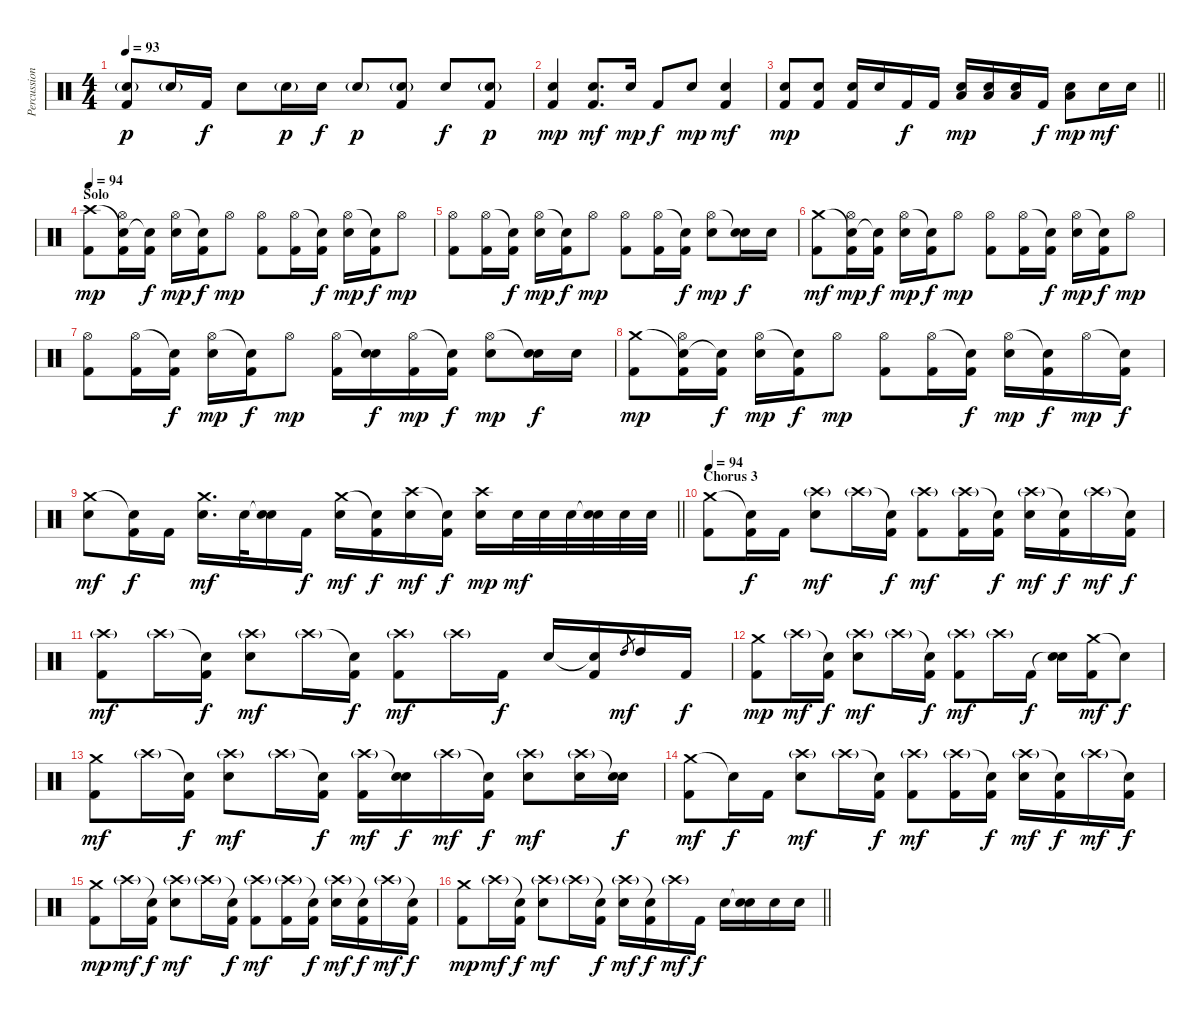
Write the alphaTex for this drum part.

\track ("Percussions" "Percussion") {instrument percussion}
\staff {score}
\articulation defaults
\ts (4 4)
\tempo 93
\clef neutral
\ks c
("Snare (hit) 2"{g} "Kick (hit) 2").8{dy p} "Snare (hit) 2"{g}.16 "Kick (hit) 2".16{dy f} "Electric Snare (hit)".8 "Snare (hit) 2"{g}.16{dy p} "Electric Snare (hit)".16{dy f} "Snare (hit) 2"{g}.8{dy p} ("Snare (hit) 2"{g} "Kick (hit) 2").8 "Electric Snare (hit)".8{dy f} ("Snare (hit) 2"{g} "Kick (hit) 2").8{dy p} |
("Electric Snare (hit)" "Kick (hit) 2").4{dy mp} ("Electric Snare (hit)" "Kick (hit) 2").8{d dy mf} "Electric Snare (hit)".16{dy mp} "Kick (hit) 2".8{dy f} "Electric Snare (hit)".8{dy mp} ("Electric Snare (hit)" "Kick (hit) 2").4{dy mf} |
\barLineRight lightlight
("Electric Snare (hit)" "Kick (hit) 2").8{dy mp} ("Electric Snare (hit)" "Kick (hit) 2").8 ("Electric Snare (hit)" "Kick (hit) 2").16 "Electric Snare (hit)".16 "Kick (hit) 2".16{dy f} "Kick (hit) 2".16 ("Low Floor Tom (hit)" "Electric Snare (hit)").16{dy mp} ("Low Floor Tom (hit)" "Electric Snare (hit)").16 ("Low Floor Tom (hit)" "Electric Snare (hit)").16 "Kick (hit) 2".16{dy f} ("Low Floor Tom (hit)" "Electric Snare (hit)").8{dy mp} "Electric Snare (hit)".16{dy mf} "Electric Snare (hit)".16 |
\section ("" "Solo")
\tempo 94
("Crash high (hit)" "Kick (hit) 2").8{dy mp} ("Snare (hit)"{t} "Hi-Hat (open)" "Kick (hit) 2").16 ("Snare (hit)"{t} "Kick (hit) 2").16{dy f} ("Hi-Hat (open)" "Electric Snare (hit)").16{dy mp} ("Snare (hit)"{t} "Kick (hit) 2").16{dy f} "Hi-Hat (open)".8{dy mp} ("Hi-Hat (open)" "Kick (hit) 2").8 ("Hi-Hat (open)" "Kick (hit) 2").16 ("Snare (hit)"{t} "Kick (hit) 2").16{dy f} ("Hi-Hat (open)" "Electric Snare (hit)").16{dy mp} ("Snare (hit)"{t} "Kick (hit) 2").16{dy f} "Hi-Hat (open)".8{dy mp} |
("Hi-Hat (open)" "Kick (hit) 2").8 ("Hi-Hat (open)" "Kick (hit) 2").16 ("Snare (hit)"{t} "Kick (hit) 2").16{dy f} ("Hi-Hat (open)" "Electric Snare (hit)").16{dy mp} ("Snare (hit)"{t} "Kick (hit) 2").16{dy f} "Hi-Hat (open)".8{dy mp} ("Hi-Hat (open)" "Kick (hit) 2").8 ("Hi-Hat (open)" "Kick (hit) 2").16 ("Snare (hit)"{t} "Kick (hit) 2").16{dy f} ("Hi-Hat (open)" "Electric Snare (hit)").8{dy mp} ("Snare (hit)"{t} "Electric Snare (hit)").16{dy f} "Electric Snare (hit)".16 |
("Crash medium (hit)" "Kick (hit) 2").8{dy mf} ("Snare (hit)"{t} "Hi-Hat (open)" "Kick (hit) 2").16{dy mp} ("Snare (hit)"{t} "Kick (hit) 2").16{dy f} ("Hi-Hat (open)" "Electric Snare (hit)").16{dy mp} ("Snare (hit)"{t} "Kick (hit) 2").16{dy f} "Hi-Hat (open)".8{dy mp} ("Hi-Hat (open)" "Kick (hit) 2").8 ("Hi-Hat (open)" "Kick (hit) 2").16 ("Snare (hit)"{t} "Kick (hit) 2").16{dy f} ("Hi-Hat (open)" "Electric Snare (hit)").16{dy mp} ("Snare (hit)"{t} "Kick (hit) 2").16{dy f} "Hi-Hat (open)".8{dy mp} |
("Hi-Hat (open)" "Kick (hit) 2").8 ("Hi-Hat (open)" "Kick (hit) 2").16 ("Snare (hit)"{t} "Kick (hit) 2").16{dy f} ("Hi-Hat (open)" "Electric Snare (hit)").16{dy mp} ("Snare (hit)"{t} "Kick (hit) 2").16{dy f} "Hi-Hat (open)".8{dy mp} ("Hi-Hat (open)" "Kick (hit) 2").16 ("Snare (hit)"{t} "Electric Snare (hit)").16{dy f} ("Hi-Hat (open)" "Kick (hit) 2").16{dy mp} ("Snare (hit)"{t} "Kick (hit) 2").16{dy f} ("Hi-Hat (open)" "Electric Snare (hit)").8{dy mp} ("Snare (hit)"{t} "Electric Snare (hit)").16{dy f} "Electric Snare (hit)".16 |
("Crash medium (hit)" "Kick (hit) 2").8{dy mp} ("Snare (hit)"{t} "Hi-Hat (open)" "Kick (hit) 2").16 ("Snare (hit)"{t} "Kick (hit) 2").16{dy f} ("Hi-Hat (open)" "Electric Snare (hit)").16{dy mp} ("Snare (hit)"{t} "Kick (hit) 2").16{dy f} "Hi-Hat (open)".8{dy mp} ("Hi-Hat (open)" "Kick (hit) 2").8 ("Hi-Hat (open)" "Kick (hit) 2").16 ("Snare (hit)"{t} "Kick (hit) 2").16{dy f} ("Hi-Hat (open)" "Electric Snare (hit)").16{dy mp} ("Snare (hit)"{t} "Kick (hit) 2").16{dy f} "Hi-Hat (open)".16{dy mp} ("Snare (hit)"{t} "Kick (hit) 2").16{dy f} |
\barLineRight lightlight
("Crash medium (hit)" "Electric Snare (hit)").8{dy mf} ("Snare (hit)"{t} "Kick (hit) 2").16{dy f} "Kick (hit) 2".16 ("Crash medium (hit)" "Electric Snare (hit)").16{d dy mf} "Electric Snare (hit)".32 ("Snare (hit)"{t} "Electric Snare (hit)").16 "Kick (hit) 2".16{dy f} ("Crash medium (hit)" "Electric Snare (hit)").16{dy mf} ("Snare (hit)"{t} "Kick (hit) 2").16{dy f} ("Crash high (hit)" "Electric Snare (hit)").16{dy mf} ("Snare (hit)"{t} "Kick (hit) 2").16{dy f} ("Crash high (hit)" "Electric Snare (hit)").16{dy mp} "Electric Snare (hit)".32{dy mf} "Electric Snare (hit)".32 "Electric Snare (hit)".32 ("Snare (hit)"{t} "Electric Snare (hit)").32 "Electric Snare (hit)".32 "Electric Snare (hit)".32 |
\section ("" "Chorus 3")
\tempo 94
("Crash medium (hit)" "Kick (hit) 2").8 ("Snare (hit)"{t} "Kick (hit) 2").16{dy f} "Kick (hit) 2".16 ("Crash high (hit)"{g} "Electric Snare (hit)").8{dy mf} "Crash high (hit)"{g}.16 ("Snare (hit)"{t} "Kick (hit) 2").16{dy f} ("Crash high (hit)"{g} "Kick (hit) 2").8{dy mf} ("Crash high (hit)"{g} "Kick (hit) 2").16 ("Snare (hit)"{t} "Kick (hit) 2").16{dy f} ("Crash high (hit)"{g} "Electric Snare (hit)").16{dy mf} ("Snare (hit)"{t} "Kick (hit) 2").16{dy f} "Crash high (hit)"{g}.16{dy mf} ("Snare (hit)"{t} "Kick (hit) 2").16{dy f} |
("Crash high (hit)"{g} "Kick (hit) 2").8{dy mf} "Crash high (hit)"{g}.16 ("Snare (hit)"{t} "Kick (hit) 2").16{dy f} ("Crash high (hit)"{g} "Electric Snare (hit)").8{dy mf} "Crash high (hit)"{g}.16 ("Snare (hit)"{t} "Kick (hit) 2").16{dy f} ("Crash high (hit)"{g} "Kick (hit) 2").8{dy mf} "Crash high (hit)"{g}.16 "Kick (hit) 2".16{dy f} "Electric Snare (hit)".16 ("Snare (hit)"{t} "Kick (hit) 2").16 "High Tom (hit)".8{gr dy mf} "High Tom (hit)".16 "Kick (hit) 2".16{dy f} |
("Crash medium (hit)" "Kick (hit) 2").8{dy mp} "Crash high (hit)"{g}.16{dy mf} ("Snare (hit)"{t} "Kick (hit) 2").16{dy f} ("Crash high (hit)"{g} "Electric Snare (hit)").8{dy mf} "Crash high (hit)"{g}.16 ("Snare (hit)"{t} "Kick (hit) 2").16{dy f} ("Crash high (hit)"{g} "Kick (hit) 2").8{dy mf} "Crash high (hit)"{g}.16 "Kick (hit) 2".16{dy f} ("Snare (hit)"{t} "Electric Snare (hit)").16 ("Crash medium (hit)" "Kick (hit) 2").16{dy mf} "Snare (hit)"{t}.8{dy f} |
("Crash medium (hit)" "Kick (hit) 2").8{dy mf} "Crash high (hit)"{g}.16 ("Snare (hit)"{t} "Kick (hit) 2").16{dy f} ("Crash high (hit)"{g} "Electric Snare (hit)").8{dy mf} "Crash high (hit)"{g}.16 ("Snare (hit)"{t} "Kick (hit) 2").16{dy f} ("Crash high (hit)"{g} "Kick (hit) 2").16{dy mf} ("Snare (hit)"{t} "Electric Snare (hit)").16{dy f} "Crash high (hit)"{g}.16{dy mf} ("Snare (hit)"{t} "Kick (hit) 2").16{dy f} ("Crash high (hit)"{g} "Electric Snare (hit)").8{dy mf} ("Crash high (hit)"{g} "Electric Snare (hit)").16 ("Snare (hit)"{t} "Electric Snare (hit)").16{dy f} |
("Crash medium (hit)" "Kick (hit) 2").8{dy mf} "Snare (hit)"{t}.16{dy f} "Kick (hit) 2".16 ("Crash high (hit)"{g} "Electric Snare (hit)").8{dy mf} "Crash high (hit)"{g}.16 ("Snare (hit)"{t} "Kick (hit) 2").16{dy f} ("Crash high (hit)"{g} "Kick (hit) 2").8{dy mf} ("Crash high (hit)"{g} "Kick (hit) 2").16 ("Snare (hit)"{t} "Kick (hit) 2").16{dy f} ("Crash high (hit)"{g} "Electric Snare (hit)").16{dy mf} ("Snare (hit)"{t} "Kick (hit) 2").16{dy f} "Crash high (hit)"{g}.16{dy mf} ("Snare (hit)"{t} "Kick (hit) 2").16{dy f} |
("Crash medium (hit)" "Kick (hit) 2").8{dy mp} "Crash high (hit)"{g}.16{dy mf} ("Snare (hit)"{t} "Kick (hit) 2").16{dy f} ("Crash high (hit)"{g} "Electric Snare (hit)").8{dy mf} "Crash high (hit)"{g}.16 ("Snare (hit)"{t} "Kick (hit) 2").16{dy f} ("Crash high (hit)"{g} "Kick (hit) 2").8{dy mf} ("Crash high (hit)"{g} "Kick (hit) 2").16 ("Snare (hit)"{t} "Kick (hit) 2").16{dy f} ("Crash high (hit)"{g} "Electric Snare (hit)").16{dy mf} ("Snare (hit)"{t} "Kick (hit) 2").16{dy f} "Crash high (hit)"{g}.16{dy mf} ("Snare (hit)"{t} "Kick (hit) 2").16{dy f} |
\barLineRight lightlight
("Crash medium (hit)" "Kick (hit) 2").8{dy mp} "Crash high (hit)"{g}.16{dy mf} ("Snare (hit)"{t} "Kick (hit) 2").16{dy f} ("Crash high (hit)"{g} "Electric Snare (hit)").8{dy mf} "Crash high (hit)"{g}.16 ("Snare (hit)"{t} "Kick (hit) 2").16{dy f} ("Crash high (hit)"{g} "Electric Snare (hit)").16{dy mf} ("Snare (hit)"{t} "Kick (hit) 2").16{dy f} "Crash high (hit)"{g}.16{dy mf} "Kick (hit) 2".16{dy f} "Electric Snare (hit)".16 ("Snare (hit)"{t} "Electric Snare (hit)").16 "Electric Snare (hit)".16 "Electric Snare (hit)".16
